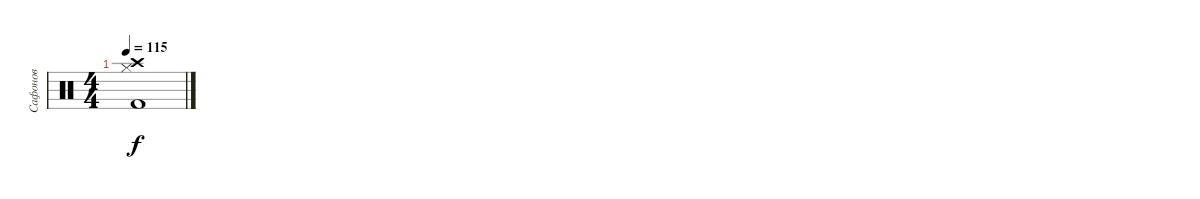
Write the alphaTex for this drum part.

\track ("Сафонов" "Сафонов") {instrument percussion}
\staff {score}
\articulation defaults
\ts (4 4)
\tempo 115
\clef neutral
\ks c
("Crash high (hit)" "Hi-Hat (closed)" "Kick (hit) 2").1{dy f}
